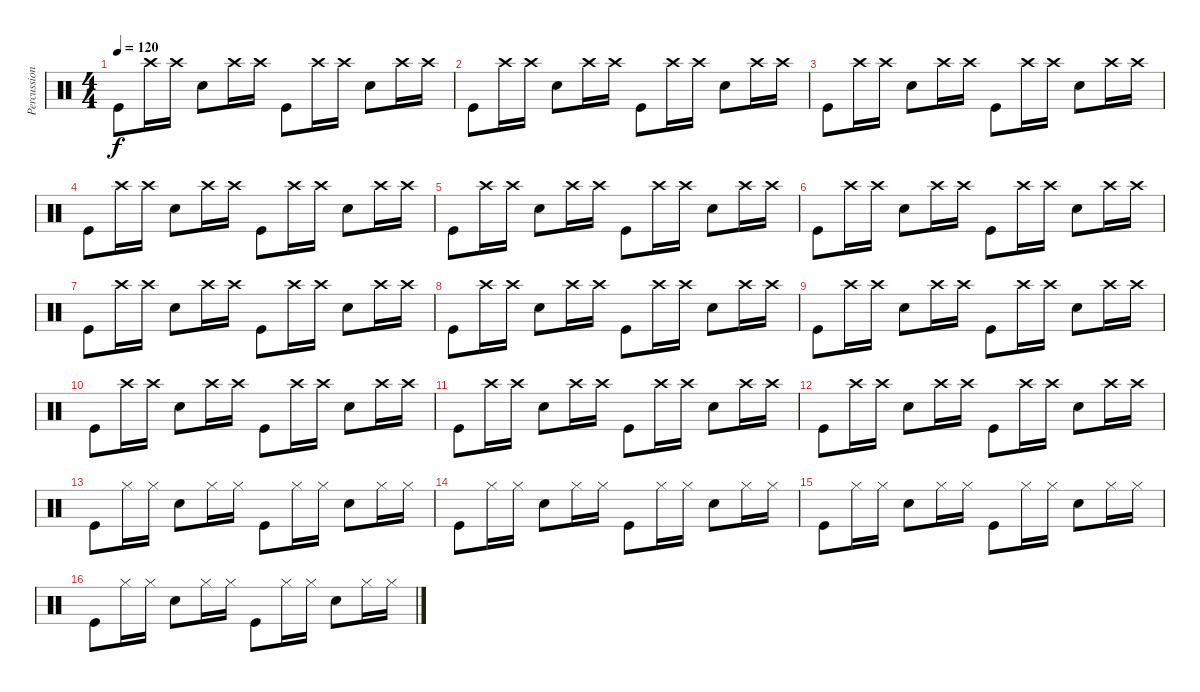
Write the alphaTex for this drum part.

\track ("Percussion" "Percussion") {instrument percussion}
\staff {score}
\articulation defaults
\ts (4 4)
\tempo 120
\clef neutral
\ks c "Kick (hit)".8{dy f} "Crash high (hit)".16 "Crash high (hit)".16 "Snare (hit) 2".8 "Crash high (hit)".16 "Crash high (hit)".16 "Kick (hit)".8 "Crash high (hit)".16 "Crash high (hit)".16 "Snare (hit) 2".8 "Crash high (hit)".16 "Crash high (hit)".16
|
"Kick (hit)".8 "Crash high (hit)".16 "Crash high (hit)".16 "Snare (hit) 2".8 "Crash high (hit)".16 "Crash high (hit)".16 "Kick (hit)".8 "Crash high (hit)".16 "Crash high (hit)".16 "Snare (hit) 2".8 "Crash high (hit)".16 "Crash high (hit)".16 |
"Kick (hit)".8 "Crash high (hit)".16 "Crash high (hit)".16 "Snare (hit) 2".8 "Crash high (hit)".16 "Crash high (hit)".16 "Kick (hit)".8 "Crash high (hit)".16 "Crash high (hit)".16 "Snare (hit) 2".8 "Crash high (hit)".16 "Crash high (hit)".16 |
"Kick (hit)".8 "Crash high (hit)".16 "Crash high (hit)".16 "Snare (hit) 2".8 "Crash high (hit)".16 "Crash high (hit)".16 "Kick (hit)".8 "Crash high (hit)".16 "Crash high (hit)".16 "Snare (hit) 2".8 "Crash high (hit)".16 "Crash high (hit)".16 |
"Kick (hit)".8 "Crash high (hit)".16 "Crash high (hit)".16 "Snare (hit) 2".8 "Crash high (hit)".16 "Crash high (hit)".16 "Kick (hit)".8 "Crash high (hit)".16 "Crash high (hit)".16 "Snare (hit) 2".8 "Crash high (hit)".16 "Crash high (hit)".16 |
"Kick (hit)".8 "Crash high (hit)".16 "Crash high (hit)".16 "Snare (hit) 2".8 "Crash high (hit)".16 "Crash high (hit)".16 "Kick (hit)".8 "Crash high (hit)".16 "Crash high (hit)".16 "Snare (hit) 2".8 "Crash high (hit)".16 "Crash high (hit)".16 |
"Kick (hit)".8 "Crash high (hit)".16 "Crash high (hit)".16 "Snare (hit) 2".8 "Crash high (hit)".16 "Crash high (hit)".16 "Kick (hit)".8 "Crash high (hit)".16 "Crash high (hit)".16 "Snare (hit) 2".8 "Crash high (hit)".16 "Crash high (hit)".16 |
"Kick (hit)".8 "Crash high (hit)".16 "Crash high (hit)".16 "Snare (hit) 2".8 "Crash high (hit)".16 "Crash high (hit)".16 "Kick (hit)".8 "Crash high (hit)".16 "Crash high (hit)".16 "Snare (hit) 2".8 "Crash high (hit)".16 "Crash high (hit)".16 |
"Kick (hit)".8 "Crash high (hit)".16 "Crash high (hit)".16 "Snare (hit) 2".8 "Crash high (hit)".16 "Crash high (hit)".16 "Kick (hit)".8 "Crash high (hit)".16 "Crash high (hit)".16 "Snare (hit) 2".8 "Crash high (hit)".16 "Crash high (hit)".16 |
"Kick (hit)".8 "Crash high (hit)".16 "Crash high (hit)".16 "Snare (hit) 2".8 "Crash high (hit)".16 "Crash high (hit)".16 "Kick (hit)".8 "Crash high (hit)".16 "Crash high (hit)".16 "Snare (hit) 2".8 "Crash high (hit)".16 "Crash high (hit)".16 |
"Kick (hit)".8 "Crash high (hit)".16 "Crash high (hit)".16 "Snare (hit) 2".8 "Crash high (hit)".16 "Crash high (hit)".16 "Kick (hit)".8 "Crash high (hit)".16 "Crash high (hit)".16 "Snare (hit) 2".8 "Crash high (hit)".16 "Crash high (hit)".16 |
"Kick (hit)".8 "Crash high (hit)".16 "Crash high (hit)".16 "Snare (hit) 2".8 "Crash high (hit)".16 "Crash high (hit)".16 "Kick (hit)".8 "Crash high (hit)".16 "Crash high (hit)".16 "Snare (hit) 2".8 "Crash high (hit)".16 "Crash high (hit)".16 |
"Kick (hit)".8 "Hi-Hat (closed)".16 "Hi-Hat (closed)".16 "Snare (hit) 2".8 "Hi-Hat (closed)".16 "Hi-Hat (closed)".16 "Kick (hit)".8 "Hi-Hat (closed)".16 "Hi-Hat (closed)".16 "Snare (hit) 2".8 "Hi-Hat (closed)".16 "Hi-Hat (closed)".16 |
"Kick (hit)".8 "Hi-Hat (closed)".16 "Hi-Hat (closed)".16 "Snare (hit) 2".8 "Hi-Hat (closed)".16 "Hi-Hat (closed)".16 "Kick (hit)".8 "Hi-Hat (closed)".16 "Hi-Hat (closed)".16 "Snare (hit) 2".8 "Hi-Hat (closed)".16 "Hi-Hat (closed)".16 |
"Kick (hit)".8 "Hi-Hat (closed)".16 "Hi-Hat (closed)".16 "Snare (hit) 2".8 "Hi-Hat (closed)".16 "Hi-Hat (closed)".16 "Kick (hit)".8 "Hi-Hat (closed)".16 "Hi-Hat (closed)".16 "Snare (hit) 2".8 "Hi-Hat (closed)".16 "Hi-Hat (closed)".16 |
"Kick (hit)".8 "Hi-Hat (closed)".16 "Hi-Hat (closed)".16 "Snare (hit) 2".8 "Hi-Hat (closed)".16 "Hi-Hat (closed)".16 "Kick (hit)".8 "Hi-Hat (closed)".16 "Hi-Hat (closed)".16 "Snare (hit) 2".8 "Hi-Hat (closed)".16 "Hi-Hat (closed)".16
